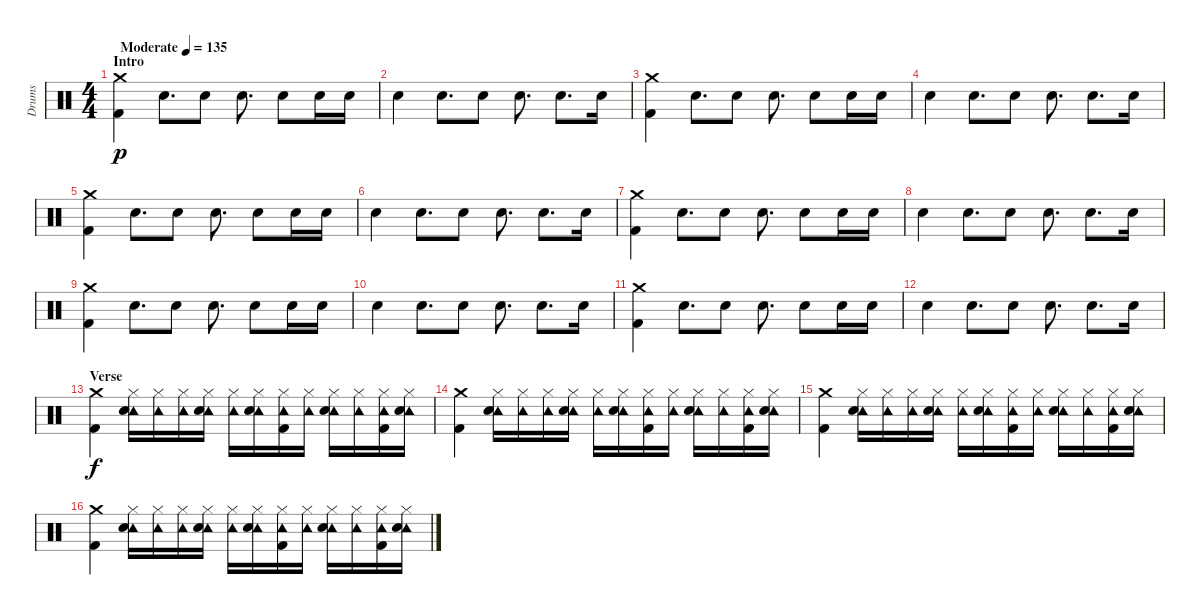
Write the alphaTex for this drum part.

\track ("Drums" "Drums") {instrument percussion}
\staff {score}
\articulation defaults
\ts (4 4)
\section ("" "Intro")
\tempo (135 "Moderate")
\clef neutral
\ks c
("Crash medium (hit)" "Kick (hit) 2").4{dy p} "Snare (hit) 2".8{d} "Snare (hit) 2".8 "Snare (hit) 2".8{d} "Snare (hit) 2".8 "Snare (hit) 2".16 "Snare (hit) 2".16 |
"Snare (hit) 2".4 "Snare (hit) 2".8{d} "Snare (hit) 2".8 "Snare (hit) 2".8{d} "Snare (hit) 2".8{d} "Snare (hit) 2".16 |
("Crash medium (hit)" "Kick (hit) 2").4 "Snare (hit) 2".8{d} "Snare (hit) 2".8 "Snare (hit) 2".8{d} "Snare (hit) 2".8 "Snare (hit) 2".16 "Snare (hit) 2".16 |
"Snare (hit) 2".4 "Snare (hit) 2".8{d} "Snare (hit) 2".8 "Snare (hit) 2".8{d} "Snare (hit) 2".8{d} "Snare (hit) 2".16 |
("Crash medium (hit)" "Kick (hit) 2").4 "Snare (hit) 2".8{d} "Snare (hit) 2".8 "Snare (hit) 2".8{d} "Snare (hit) 2".8 "Snare (hit) 2".16 "Snare (hit) 2".16 |
"Snare (hit) 2".4 "Snare (hit) 2".8{d} "Snare (hit) 2".8 "Snare (hit) 2".8{d} "Snare (hit) 2".8{d} "Snare (hit) 2".16 |
("Crash medium (hit)" "Kick (hit) 2").4 "Snare (hit) 2".8{d} "Snare (hit) 2".8 "Snare (hit) 2".8{d} "Snare (hit) 2".8 "Snare (hit) 2".16 "Snare (hit) 2".16 |
"Snare (hit) 2".4 "Snare (hit) 2".8{d} "Snare (hit) 2".8 "Snare (hit) 2".8{d} "Snare (hit) 2".8{d} "Snare (hit) 2".16 |
("Crash medium (hit)" "Kick (hit) 2").4 "Snare (hit) 2".8{d} "Snare (hit) 2".8 "Snare (hit) 2".8{d} "Snare (hit) 2".8 "Snare (hit) 2".16 "Snare (hit) 2".16 |
"Snare (hit) 2".4 "Snare (hit) 2".8{d} "Snare (hit) 2".8 "Snare (hit) 2".8{d} "Snare (hit) 2".8{d} "Snare (hit) 2".16 |
("Crash medium (hit)" "Kick (hit) 2").4 "Snare (hit) 2".8{d} "Snare (hit) 2".8 "Snare (hit) 2".8{d} "Snare (hit) 2".8 "Snare (hit) 2".16 "Snare (hit) 2".16 |
"Snare (hit) 2".4 "Snare (hit) 2".8{d} "Snare (hit) 2".8 "Snare (hit) 2".8{d} "Snare (hit) 2".8{d} "Snare (hit) 2".16 |
\section ("" "Verse")
("Crash medium (hit)" "Kick (hit) 2").4{dy f} ("Hi-Hat (closed)" "Tambourine (hit)" "Snare (hit) 2").16 ("Hi-Hat (closed)" "Tambourine (hit)").16 ("Hi-Hat (closed)" "Tambourine (hit)").16 ("Hi-Hat (closed)" "Tambourine (hit)" "Snare (hit) 2").16 ("Hi-Hat (closed)" "Tambourine (hit)").16 ("Hi-Hat (closed)" "Tambourine (hit)" "Snare (hit) 2").16 ("Hi-Hat (closed)" "Tambourine (hit)" "Kick (hit) 2").16 ("Hi-Hat (closed)" "Tambourine (hit)").16 ("Hi-Hat (closed)" "Tambourine (hit)" "Snare (hit) 2").16 ("Hi-Hat (closed)" "Tambourine (hit)").16 ("Hi-Hat (closed)" "Tambourine (hit)" "Kick (hit) 2").16 ("Hi-Hat (closed)" "Tambourine (hit)" "Snare (hit) 2").16 |
("Crash medium (hit)" "Kick (hit) 2").4 ("Hi-Hat (closed)" "Tambourine (hit)" "Snare (hit) 2").16 ("Hi-Hat (closed)" "Tambourine (hit)").16 ("Hi-Hat (closed)" "Tambourine (hit)").16 ("Hi-Hat (closed)" "Tambourine (hit)" "Snare (hit) 2").16 ("Hi-Hat (closed)" "Tambourine (hit)").16 ("Hi-Hat (closed)" "Tambourine (hit)" "Snare (hit) 2").16 ("Hi-Hat (closed)" "Tambourine (hit)" "Kick (hit) 2").16 ("Hi-Hat (closed)" "Tambourine (hit)").16 ("Hi-Hat (closed)" "Tambourine (hit)" "Snare (hit) 2").16 ("Hi-Hat (closed)" "Tambourine (hit)").16 ("Hi-Hat (closed)" "Tambourine (hit)" "Kick (hit) 2").16 ("Hi-Hat (closed)" "Tambourine (hit)" "Snare (hit) 2").16 |
("Crash medium (hit)" "Kick (hit) 2").4 ("Hi-Hat (closed)" "Tambourine (hit)" "Snare (hit) 2").16 ("Hi-Hat (closed)" "Tambourine (hit)").16 ("Hi-Hat (closed)" "Tambourine (hit)").16 ("Hi-Hat (closed)" "Tambourine (hit)" "Snare (hit) 2").16 ("Hi-Hat (closed)" "Tambourine (hit)").16 ("Hi-Hat (closed)" "Tambourine (hit)" "Snare (hit) 2").16 ("Hi-Hat (closed)" "Tambourine (hit)" "Kick (hit) 2").16 ("Hi-Hat (closed)" "Tambourine (hit)").16 ("Hi-Hat (closed)" "Tambourine (hit)" "Snare (hit) 2").16 ("Hi-Hat (closed)" "Tambourine (hit)").16 ("Hi-Hat (closed)" "Tambourine (hit)" "Kick (hit) 2").16 ("Hi-Hat (closed)" "Tambourine (hit)" "Snare (hit) 2").16 |
("Crash medium (hit)" "Kick (hit) 2").4 ("Hi-Hat (closed)" "Tambourine (hit)" "Snare (hit) 2").16 ("Hi-Hat (closed)" "Tambourine (hit)").16 ("Hi-Hat (closed)" "Tambourine (hit)").16 ("Hi-Hat (closed)" "Tambourine (hit)" "Snare (hit) 2").16 ("Hi-Hat (closed)" "Tambourine (hit)").16 ("Hi-Hat (closed)" "Tambourine (hit)" "Snare (hit) 2").16 ("Hi-Hat (closed)" "Tambourine (hit)" "Kick (hit) 2").16 ("Hi-Hat (closed)" "Tambourine (hit)").16 ("Hi-Hat (closed)" "Tambourine (hit)" "Snare (hit) 2").16 ("Hi-Hat (closed)" "Tambourine (hit)").16 ("Hi-Hat (closed)" "Tambourine (hit)" "Kick (hit) 2").16 ("Hi-Hat (closed)" "Tambourine (hit)" "Snare (hit) 2").16
